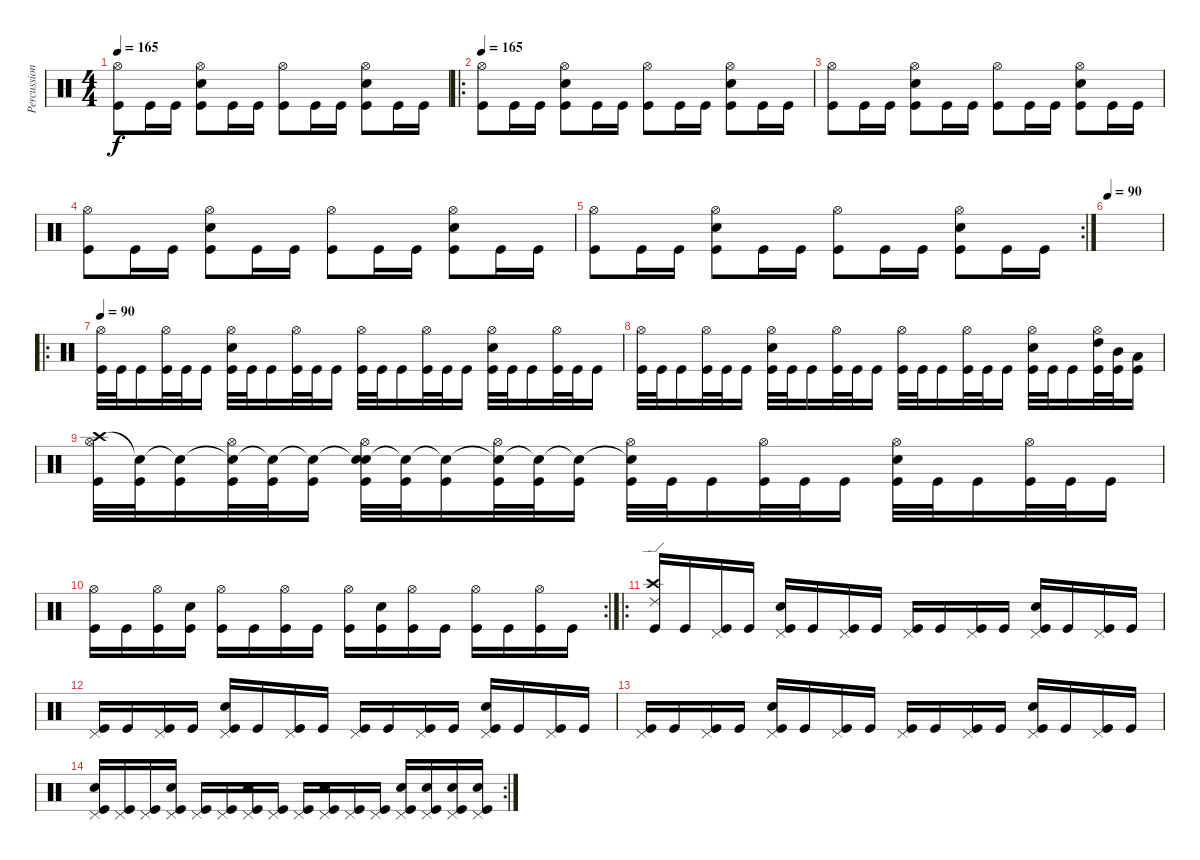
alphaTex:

\track ("Percussion" "Percussion") {instrument percussion}
\staff {score}
\articulation defaults
\ts (4 4)
\tempo 165
\clef neutral
\ks c
("Hi-Hat (open)" "Kick (hit)").8{dy f} "Kick (hit)".16 "Kick (hit)".16 ("Hi-Hat (open)" "Electric Snare (hit)" "Kick (hit)").8 "Kick (hit)".16 "Kick (hit)".16 ("Hi-Hat (open)" "Kick (hit)").8 "Kick (hit)".16 "Kick (hit)".16 ("Hi-Hat (open)" "Electric Snare (hit)" "Kick (hit)").8 "Kick (hit)".16 "Kick (hit)".16 |
\ro
\tempo 165
("Hi-Hat (open)" "Kick (hit)").8 "Kick (hit)".16 "Kick (hit)".16 ("Hi-Hat (open)" "Electric Snare (hit)" "Kick (hit)").8 "Kick (hit)".16 "Kick (hit)".16 ("Hi-Hat (open)" "Kick (hit)").8 "Kick (hit)".16 "Kick (hit)".16 ("Hi-Hat (open)" "Electric Snare (hit)" "Kick (hit)").8 "Kick (hit)".16 "Kick (hit)".16 |
("Hi-Hat (open)" "Kick (hit)").8 "Kick (hit)".16 "Kick (hit)".16 ("Hi-Hat (open)" "Electric Snare (hit)" "Kick (hit)").8 "Kick (hit)".16 "Kick (hit)".16 ("Hi-Hat (open)" "Kick (hit)").8 "Kick (hit)".16 "Kick (hit)".16 ("Hi-Hat (open)" "Electric Snare (hit)" "Kick (hit)").8 "Kick (hit)".16 "Kick (hit)".16 |
("Hi-Hat (open)" "Kick (hit)").8 "Kick (hit)".16 "Kick (hit)".16 ("Hi-Hat (open)" "Electric Snare (hit)" "Kick (hit)").8 "Kick (hit)".16 "Kick (hit)".16 ("Hi-Hat (open)" "Kick (hit)").8 "Kick (hit)".16 "Kick (hit)".16 ("Hi-Hat (open)" "Electric Snare (hit)" "Kick (hit)").8 "Kick (hit)".16 "Kick (hit)".16 |
\rc 2
("Hi-Hat (open)" "Kick (hit)").8 "Kick (hit)".16 "Kick (hit)".16 ("Hi-Hat (open)" "Electric Snare (hit)" "Kick (hit)").8 "Kick (hit)".16 "Kick (hit)".16 ("Hi-Hat (open)" "Kick (hit)").8 "Kick (hit)".16 "Kick (hit)".16 ("Hi-Hat (open)" "Electric Snare (hit)" "Kick (hit)").8 "Kick (hit)".16 "Kick (hit)".16 |
\tempo 90
|
\ro
\tempo 90
("Hi-Hat (open)" "Kick (hit)").32 "Kick (hit)".32 "Kick (hit)".16 ("Hi-Hat (open)" "Kick (hit)").32 "Kick (hit)".32 "Kick (hit)".16 ("Hi-Hat (open)" "Electric Snare (hit)" "Kick (hit)").32 "Kick (hit)".32 "Kick (hit)".16 ("Hi-Hat (open)" "Kick (hit)").32 "Kick (hit)".32 "Kick (hit)".16 ("Hi-Hat (open)" "Kick (hit)").32 "Kick (hit)".32 "Kick (hit)".16 ("Hi-Hat (open)" "Kick (hit)").32 "Kick (hit)".32 "Kick (hit)".16 ("Hi-Hat (open)" "Electric Snare (hit)" "Kick (hit)").32 "Kick (hit)".32 "Kick (hit)".16 ("Hi-Hat (open)" "Kick (hit)").32 "Kick (hit)".32 "Kick (hit)".16 |
("Hi-Hat (open)" "Kick (hit)").32 "Kick (hit)".32 "Kick (hit)".16 ("Hi-Hat (open)" "Kick (hit)").32 "Kick (hit)".32 "Kick (hit)".16 ("Hi-Hat (open)" "Electric Snare (hit)" "Kick (hit)").32 "Kick (hit)".32 "Kick (hit)".16 ("Hi-Hat (open)" "Kick (hit)").32 "Kick (hit)".32 "Kick (hit)".16 ("Hi-Hat (open)" "Kick (hit)").32 "Kick (hit)".32 "Kick (hit)".16 ("Hi-Hat (open)" "Kick (hit)").32 "Kick (hit)".32 "Kick (hit)".16 ("Hi-Hat (open)" "Electric Snare (hit)" "Kick (hit)").32 "Kick (hit)".32 "Kick (hit)".16 ("Hi-Hat (open)" "High Tom (hit)" "Kick (hit)").32 ("Mid Tom (hit)" "Kick (hit)").32 ("Low Tom (hit)" "Kick (hit)").16 |
("Crash high (hit)" "Hi-Hat (open)" "Kick (hit)").32 ("Snare (hit)"{t} "Kick (hit)").32 ("Snare (hit)"{t} "Kick (hit)").16 ("Snare (hit)"{t} "Hi-Hat (open)" "Kick (hit)").32 ("Snare (hit)"{t} "Kick (hit)").32 ("Snare (hit)"{t} "Kick (hit)").16 ("Snare (hit)"{t} "Hi-Hat (open)" "Electric Snare (hit)" "Kick (hit)").32 ("Snare (hit)"{t} "Kick (hit)").32 ("Snare (hit)"{t} "Kick (hit)").16 ("Snare (hit)"{t} "Hi-Hat (open)" "Kick (hit)").32 ("Snare (hit)"{t} "Kick (hit)").32 ("Snare (hit)"{t} "Kick (hit)").16 ("Snare (hit)"{t} "Hi-Hat (open)" "Kick (hit)").32 "Kick (hit)".32 "Kick (hit)".16 ("Hi-Hat (open)" "Kick (hit)").32 "Kick (hit)".32 "Kick (hit)".16 ("Hi-Hat (open)" "Electric Snare (hit)" "Kick (hit)").32 "Kick (hit)".32 "Kick (hit)".16 ("Hi-Hat (open)" "Kick (hit)").32 "Kick (hit)".32 "Kick (hit)".16 |
\rc 2
("Hi-Hat (open)" "Kick (hit)").16 "Kick (hit)".16 ("Hi-Hat (open)" "Kick (hit)").16 ("Electric Snare (hit)" "Kick (hit)").16 ("Hi-Hat (open)" "Kick (hit)").16 "Kick (hit)".16 ("Hi-Hat (open)" "Kick (hit)").16 "Kick (hit)".16 ("Hi-Hat (open)" "Kick (hit)").16 ("Electric Snare (hit)" "Kick (hit)").16 ("Hi-Hat (open)" "Kick (hit)").16 "Kick (hit)".16 ("Hi-Hat (open)" "Kick (hit)").16 "Kick (hit)".16 ("Hi-Hat (open)" "Kick (hit)").16 "Kick (hit)".16 |
\ro
("Ride (edge) 2" "Crash high (hit)" "Kick (hit)").16 "Kick (hit)".16 ("Pedal Hi-Hat (hit)" "Kick (hit)").16 "Kick (hit)".16 ("Pedal Hi-Hat (hit)" "Electric Snare (hit)" "Kick (hit)").16 "Kick (hit)".16 ("Pedal Hi-Hat (hit)" "Kick (hit)").16 "Kick (hit)".16 ("Pedal Hi-Hat (hit)" "Kick (hit)").16 "Kick (hit)".16 ("Pedal Hi-Hat (hit)" "Kick (hit)").16 "Kick (hit)".16 ("Pedal Hi-Hat (hit)" "Electric Snare (hit)" "Kick (hit)").16 "Kick (hit)".16 ("Pedal Hi-Hat (hit)" "Kick (hit)").16 "Kick (hit)".16 |
("Pedal Hi-Hat (hit)" "Kick (hit)").16 "Kick (hit)".16 ("Pedal Hi-Hat (hit)" "Kick (hit)").16 "Kick (hit)".16 ("Pedal Hi-Hat (hit)" "Electric Snare (hit)" "Kick (hit)").16 "Kick (hit)".16 ("Pedal Hi-Hat (hit)" "Kick (hit)").16 "Kick (hit)".16 ("Pedal Hi-Hat (hit)" "Kick (hit)").16 "Kick (hit)".16 ("Pedal Hi-Hat (hit)" "Kick (hit)").16 "Kick (hit)".16 ("Pedal Hi-Hat (hit)" "Electric Snare (hit)" "Kick (hit)").16 "Kick (hit)".16 ("Pedal Hi-Hat (hit)" "Kick (hit)").16 "Kick (hit)".16 |
("Pedal Hi-Hat (hit)" "Kick (hit)").16 "Kick (hit)".16 ("Pedal Hi-Hat (hit)" "Kick (hit)").16 "Kick (hit)".16 ("Pedal Hi-Hat (hit)" "Electric Snare (hit)" "Kick (hit)").16 "Kick (hit)".16 ("Pedal Hi-Hat (hit)" "Kick (hit)").16 "Kick (hit)".16 ("Pedal Hi-Hat (hit)" "Kick (hit)").16 "Kick (hit)".16 ("Pedal Hi-Hat (hit)" "Kick (hit)").16 "Kick (hit)".16 ("Pedal Hi-Hat (hit)" "Electric Snare (hit)" "Kick (hit)").16 "Kick (hit)".16 ("Pedal Hi-Hat (hit)" "Kick (hit)").16 "Kick (hit)".16 |
\rc 2
("Pedal Hi-Hat (hit)" "Electric Snare (hit)" "Kick (hit)").16 ("Pedal Hi-Hat (hit)" "Kick (hit)").16 ("Pedal Hi-Hat (hit)" "Kick (hit)").16 ("Pedal Hi-Hat (hit)" "Electric Snare (hit)" "Kick (hit)").16 ("Pedal Hi-Hat (hit)" "Kick (hit)").16 ("Pedal Hi-Hat (hit)" "Kick (hit)").16 ("Pedal Hi-Hat (hit)" "Electric Snare (hit)" "Kick (hit)").16 ("Pedal Hi-Hat (hit)" "Kick (hit)").16 ("Pedal Hi-Hat (hit)" "Kick (hit)").16 ("Pedal Hi-Hat (hit)" "Electric Snare (hit)" "Kick (hit)").16 ("Pedal Hi-Hat (hit)" "Kick (hit)").16 ("Pedal Hi-Hat (hit)" "Kick (hit)").16 ("Pedal Hi-Hat (hit)" "Electric Snare (hit)" "Kick (hit)").16 ("Pedal Hi-Hat (hit)" "Electric Snare (hit)" "Kick (hit)").16 ("Pedal Hi-Hat (hit)" "Electric Snare (hit)" "Kick (hit)").16 ("Pedal Hi-Hat (hit)" "Electric Snare (hit)" "Kick (hit)").16
